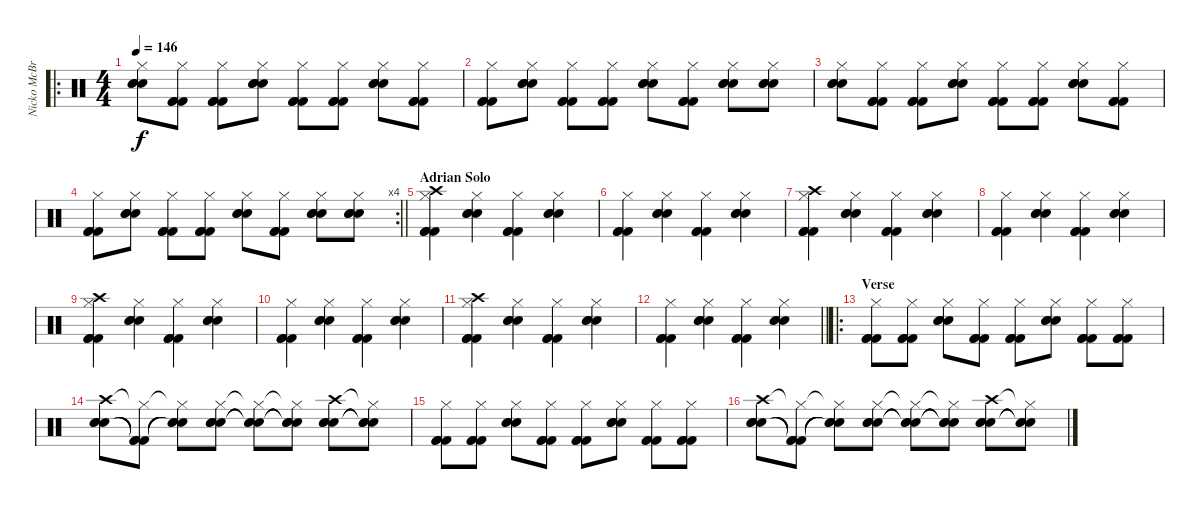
\track ("Nicko McBrain" "Nicko McBr") {instrument percussion}
\staff {score}
\articulation defaults
\ro
\ts (4 4)
\tempo 146
\clef neutral
\ks c
("Hi-Hat (closed)" "Snare (hit) 2" "Snare (hit) 2" "Snare (hit) 2").8{dy f} ("Hi-Hat (closed)" "Kick (hit) 2" "Kick (hit) 2" "Kick (hit) 2").8 ("Hi-Hat (closed)" "Kick (hit) 2" "Kick (hit) 2" "Kick (hit) 2").8 ("Hi-Hat (closed)" "Snare (hit) 2" "Snare (hit) 2" "Snare (hit) 2").8 ("Hi-Hat (closed)" "Kick (hit) 2" "Kick (hit) 2" "Kick (hit) 2").8 ("Hi-Hat (closed)" "Kick (hit) 2" "Kick (hit) 2" "Kick (hit) 2").8 ("Hi-Hat (closed)" "Snare (hit) 2" "Snare (hit) 2" "Snare (hit) 2").8 ("Hi-Hat (closed)" "Kick (hit) 2" "Kick (hit) 2" "Kick (hit) 2").8 |
("Hi-Hat (closed)" "Kick (hit) 2" "Kick (hit) 2" "Kick (hit) 2").8 ("Hi-Hat (closed)" "Snare (hit) 2" "Snare (hit) 2" "Snare (hit) 2").8 ("Hi-Hat (closed)" "Kick (hit) 2" "Kick (hit) 2" "Kick (hit) 2").8 ("Hi-Hat (closed)" "Kick (hit) 2" "Kick (hit) 2" "Kick (hit) 2").8 ("Hi-Hat (closed)" "Snare (hit) 2" "Snare (hit) 2" "Snare (hit) 2").8 ("Hi-Hat (closed)" "Kick (hit) 2" "Kick (hit) 2" "Kick (hit) 2").8 ("Hi-Hat (closed)" "Snare (hit) 2" "Snare (hit) 2" "Snare (hit) 2").8 ("Hi-Hat (closed)" "Snare (hit) 2" "Snare (hit) 2" "Snare (hit) 2").8 |
("Hi-Hat (closed)" "Snare (hit) 2" "Snare (hit) 2" "Snare (hit) 2").8 ("Hi-Hat (closed)" "Kick (hit) 2" "Kick (hit) 2" "Kick (hit) 2").8 ("Hi-Hat (closed)" "Kick (hit) 2" "Kick (hit) 2" "Kick (hit) 2").8 ("Hi-Hat (closed)" "Snare (hit) 2" "Snare (hit) 2" "Snare (hit) 2").8 ("Hi-Hat (closed)" "Kick (hit) 2" "Kick (hit) 2" "Kick (hit) 2").8 ("Hi-Hat (closed)" "Kick (hit) 2" "Kick (hit) 2" "Kick (hit) 2").8 ("Hi-Hat (closed)" "Snare (hit) 2" "Snare (hit) 2" "Snare (hit) 2").8 ("Hi-Hat (closed)" "Kick (hit) 2" "Kick (hit) 2" "Kick (hit) 2").8 |
\rc 4
\barLineRight lightlight
("Hi-Hat (closed)" "Kick (hit) 2" "Kick (hit) 2" "Kick (hit) 2").8 ("Hi-Hat (closed)" "Snare (hit) 2" "Snare (hit) 2" "Snare (hit) 2").8 ("Hi-Hat (closed)" "Kick (hit) 2" "Kick (hit) 2" "Kick (hit) 2").8 ("Hi-Hat (closed)" "Kick (hit) 2" "Kick (hit) 2" "Kick (hit) 2").8 ("Hi-Hat (closed)" "Snare (hit) 2" "Snare (hit) 2" "Snare (hit) 2").8 ("Hi-Hat (closed)" "Kick (hit) 2" "Kick (hit) 2" "Kick (hit) 2").8 ("Hi-Hat (closed)" "Snare (hit) 2" "Snare (hit) 2" "Snare (hit) 2").8 ("Hi-Hat (closed)" "Snare (hit) 2" "Snare (hit) 2" "Snare (hit) 2").8 |
\section ("" "Adrian Solo")
("Crash high (hit)" "Hi-Hat (closed)" "Kick (hit) 2" "Kick (hit) 2" "Kick (hit) 2").4 ("Hi-Hat (closed)" "Snare (hit) 2" "Snare (hit) 2" "Snare (hit) 2").4 ("Hi-Hat (closed)" "Kick (hit) 2" "Kick (hit) 2" "Kick (hit) 2").4 ("Hi-Hat (closed)" "Snare (hit) 2" "Snare (hit) 2" "Snare (hit) 2").4 |
("Hi-Hat (closed)" "Kick (hit) 2" "Kick (hit) 2" "Kick (hit) 2").4 ("Hi-Hat (closed)" "Snare (hit) 2" "Snare (hit) 2" "Snare (hit) 2").4 ("Hi-Hat (closed)" "Kick (hit) 2" "Kick (hit) 2" "Kick (hit) 2").4 ("Hi-Hat (closed)" "Snare (hit) 2" "Snare (hit) 2" "Snare (hit) 2").4 |
("Crash high (hit)" "Hi-Hat (closed)" "Kick (hit) 2" "Kick (hit) 2" "Kick (hit) 2").4 ("Hi-Hat (closed)" "Snare (hit) 2" "Snare (hit) 2" "Snare (hit) 2").4 ("Hi-Hat (closed)" "Kick (hit) 2" "Kick (hit) 2" "Kick (hit) 2").4 ("Hi-Hat (closed)" "Snare (hit) 2" "Snare (hit) 2" "Snare (hit) 2").4 |
("Hi-Hat (closed)" "Kick (hit) 2" "Kick (hit) 2" "Kick (hit) 2").4 ("Hi-Hat (closed)" "Snare (hit) 2" "Snare (hit) 2" "Snare (hit) 2").4 ("Hi-Hat (closed)" "Kick (hit) 2" "Kick (hit) 2" "Kick (hit) 2").4 ("Hi-Hat (closed)" "Snare (hit) 2" "Snare (hit) 2" "Snare (hit) 2").4 |
("Crash high (hit)" "Hi-Hat (closed)" "Kick (hit) 2" "Kick (hit) 2" "Kick (hit) 2").4 ("Hi-Hat (closed)" "Snare (hit) 2" "Snare (hit) 2" "Snare (hit) 2").4 ("Hi-Hat (closed)" "Kick (hit) 2" "Kick (hit) 2" "Kick (hit) 2").4 ("Hi-Hat (closed)" "Snare (hit) 2" "Snare (hit) 2" "Snare (hit) 2").4 |
("Hi-Hat (closed)" "Kick (hit) 2" "Kick (hit) 2" "Kick (hit) 2").4 ("Hi-Hat (closed)" "Snare (hit) 2" "Snare (hit) 2" "Snare (hit) 2").4 ("Hi-Hat (closed)" "Kick (hit) 2" "Kick (hit) 2" "Kick (hit) 2").4 ("Hi-Hat (closed)" "Snare (hit) 2" "Snare (hit) 2" "Snare (hit) 2").4 |
("Crash high (hit)" "Hi-Hat (closed)" "Kick (hit) 2" "Kick (hit) 2" "Kick (hit) 2").4 ("Hi-Hat (closed)" "Snare (hit) 2" "Snare (hit) 2" "Snare (hit) 2").4 ("Hi-Hat (closed)" "Kick (hit) 2" "Kick (hit) 2" "Kick (hit) 2").4 ("Hi-Hat (closed)" "Snare (hit) 2" "Snare (hit) 2" "Snare (hit) 2").4 |
\barLineRight lightlight
("Hi-Hat (closed)" "Kick (hit) 2" "Kick (hit) 2" "Kick (hit) 2").4 ("Hi-Hat (closed)" "Snare (hit) 2" "Snare (hit) 2" "Snare (hit) 2").4 ("Hi-Hat (closed)" "Kick (hit) 2" "Kick (hit) 2" "Kick (hit) 2").4 ("Hi-Hat (closed)" "Snare (hit) 2" "Snare (hit) 2" "Snare (hit) 2").4 |
\ro
\section ("" "Verse")
("Hi-Hat (closed)" "Kick (hit) 2" "Kick (hit) 2" "Kick (hit) 2").8 ("Hi-Hat (closed)" "Kick (hit) 2" "Kick (hit) 2" "Kick (hit) 2").8 ("Hi-Hat (closed)" "Snare (hit) 2" "Snare (hit) 2" "Snare (hit) 2").8 ("Hi-Hat (closed)" "Kick (hit) 2" "Kick (hit) 2" "Kick (hit) 2").8 ("Hi-Hat (closed)" "Kick (hit) 2" "Kick (hit) 2" "Kick (hit) 2").8 ("Hi-Hat (closed)" "Snare (hit) 2" "Snare (hit) 2" "Snare (hit) 2").8 ("Hi-Hat (closed)" "Kick (hit) 2" "Kick (hit) 2" "Kick (hit) 2").8 ("Hi-Hat (closed)" "Kick (hit) 2" "Kick (hit) 2" "Kick (hit) 2").8 |
("Crash high (hit)" "Snare (hit) 2" "Snare (hit) 2" "Snare (hit) 2").8 ("Hi-Hat (closed)"{t} "Kick (hit) 2"{t} "Kick (hit) 2"{t} "Kick (hit) 2"{t}).8 ("Hi-Hat (closed)"{t} "Snare (hit) 2"{t} "Snare (hit) 2"{t} "Snare (hit) 2"{t}).8 ("Hi-Hat (closed)" "Snare (hit) 2" "Snare (hit) 2" "Snare (hit) 2").8 ("Hi-Hat (closed)"{t} "Snare (hit) 2"{t} "Snare (hit) 2"{t} "Snare (hit) 2"{t}).8 ("Hi-Hat (closed)"{t} "Snare (hit) 2"{t} "Snare (hit) 2"{t} "Snare (hit) 2"{t}).8 ("Crash high (hit)" "Snare (hit) 2" "Snare (hit) 2" "Snare (hit) 2").8 ("Hi-Hat (closed)"{t} "Snare (hit) 2"{t} "Snare (hit) 2"{t} "Snare (hit) 2"{t}).8 |
("Hi-Hat (closed)" "Kick (hit) 2" "Kick (hit) 2" "Kick (hit) 2").8 ("Hi-Hat (closed)" "Kick (hit) 2" "Kick (hit) 2" "Kick (hit) 2").8 ("Hi-Hat (closed)" "Snare (hit) 2" "Snare (hit) 2" "Snare (hit) 2").8 ("Hi-Hat (closed)" "Kick (hit) 2" "Kick (hit) 2" "Kick (hit) 2").8 ("Hi-Hat (closed)" "Kick (hit) 2" "Kick (hit) 2" "Kick (hit) 2").8 ("Hi-Hat (closed)" "Snare (hit) 2" "Snare (hit) 2" "Snare (hit) 2").8 ("Hi-Hat (closed)" "Kick (hit) 2" "Kick (hit) 2" "Kick (hit) 2").8 ("Hi-Hat (closed)" "Kick (hit) 2" "Kick (hit) 2" "Kick (hit) 2").8 |
("Crash high (hit)" "Snare (hit) 2" "Snare (hit) 2" "Snare (hit) 2").8 ("Hi-Hat (closed)"{t} "Kick (hit) 2"{t} "Kick (hit) 2"{t} "Kick (hit) 2"{t}).8 ("Hi-Hat (closed)"{t} "Snare (hit) 2"{t} "Snare (hit) 2"{t} "Snare (hit) 2"{t}).8 ("Hi-Hat (closed)" "Snare (hit) 2" "Snare (hit) 2" "Snare (hit) 2").8 ("Hi-Hat (closed)"{t} "Snare (hit) 2"{t} "Snare (hit) 2"{t} "Snare (hit) 2"{t}).8 ("Hi-Hat (closed)"{t} "Snare (hit) 2"{t} "Snare (hit) 2"{t} "Snare (hit) 2"{t}).8 ("Crash high (hit)" "Snare (hit) 2" "Snare (hit) 2" "Snare (hit) 2").8 ("Hi-Hat (closed)"{t} "Snare (hit) 2"{t} "Snare (hit) 2"{t} "Snare (hit) 2"{t}).8
